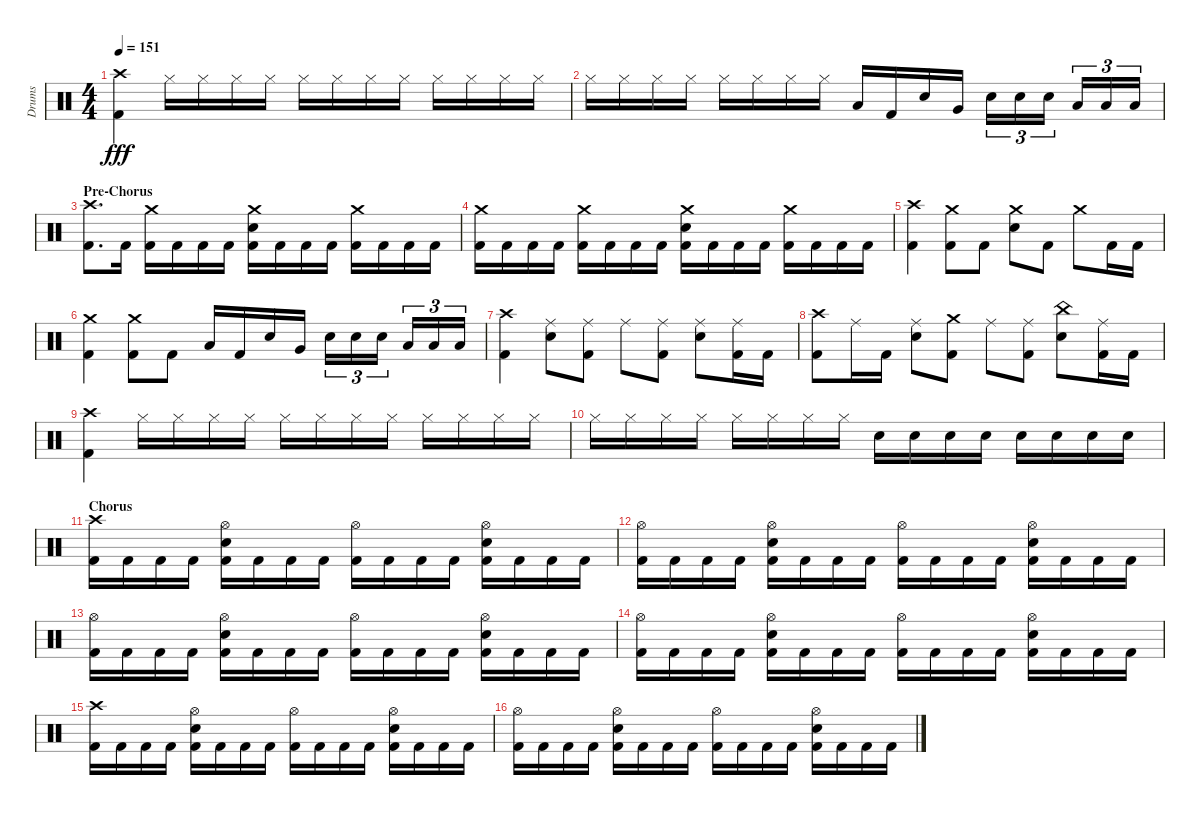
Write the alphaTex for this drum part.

\track ("Drums" "Drums") {instrument percussion}
\staff {score}
\articulation defaults
\ts (4 4)
\tempo 151
\clef neutral
\ks aminor
("Kick (hit) 2" "Crash high (hit)").4{dy fff} "Hi-Hat (closed)".16 "Hi-Hat (closed)".16 "Hi-Hat (closed)".16 "Hi-Hat (closed)".16 "Hi-Hat (closed)".16 "Hi-Hat (closed)".16 "Hi-Hat (closed)".16 "Hi-Hat (closed)".16 "Hi-Hat (closed)".16 "Hi-Hat (closed)".16 "Hi-Hat (closed)".16 "Hi-Hat (closed)".16 |
"Hi-Hat (closed)".16 "Hi-Hat (closed)".16 "Hi-Hat (closed)".16 "Hi-Hat (closed)".16 "Hi-Hat (closed)".16 "Hi-Hat (closed)".16 "Hi-Hat (closed)".16 "Hi-Hat (closed)".16 "Low Tom (hit)".16 "Kick (hit) 2".16 "Snare (hit) 2".16 "Very Low Tom (hit)".16 "Snare (hit) 2".16{tu (3 2)} "Snare (hit) 2".16{tu (3 2)} "Snare (hit) 2".16{tu (3 2)} "Low Floor Tom (hit)".16{tu (3 2)} "Low Floor Tom (hit)".16{tu (3 2)} "Low Floor Tom (hit)".16{tu (3 2)} |
\section ("" "Pre-Chorus")
("Kick (hit) 2" "Crash high (hit)").8{d} "Kick (hit) 2".16 ("Kick (hit) 2" "Crash medium (hit)").16 "Kick (hit) 2".16 "Kick (hit) 2".16 "Kick (hit) 2".16 ("Kick (hit) 2" "Snare (hit) 2" "Crash medium (hit)").16 "Kick (hit) 2".16 "Kick (hit) 2".16 "Kick (hit) 2".16 ("Kick (hit) 2" "Crash medium (hit)").16 "Kick (hit) 2".16 "Kick (hit) 2".16 "Kick (hit) 2".16 |
("Kick (hit) 2" "Crash medium (hit)").16 "Kick (hit) 2".16 "Kick (hit) 2".16 "Kick (hit) 2".16 ("Kick (hit) 2" "Crash medium (hit)").16 "Kick (hit) 2".16 "Kick (hit) 2".16 "Kick (hit) 2".16 ("Kick (hit) 2" "Snare (hit) 2" "Crash medium (hit)").16 "Kick (hit) 2".16 "Kick (hit) 2".16 "Kick (hit) 2".16 ("Kick (hit) 2" "Crash medium (hit)").16 "Kick (hit) 2".16 "Kick (hit) 2".16 "Kick (hit) 2".16 |
("Kick (hit) 2" "Crash high (hit)").4 ("Kick (hit) 2" "Crash medium (hit)").8 "Kick (hit) 2".8 ("Snare (hit) 2" "Crash medium (hit)").8 "Kick (hit) 2".8 "Crash medium (hit)".8 "Kick (hit) 2".16 "Kick (hit) 2".16 |
("Kick (hit) 2" "Crash medium (hit)").4 ("Kick (hit) 2" "Crash medium (hit)").8 "Kick (hit) 2".8 "Low Tom (hit)".16 "Kick (hit) 2".16 "Snare (hit) 2".16 "Very Low Tom (hit)".16 "Snare (hit) 2".16{tu (3 2)} "Snare (hit) 2".16{tu (3 2)} "Snare (hit) 2".16{tu (3 2)} "Low Floor Tom (hit)".16{tu (3 2)} "Low Floor Tom (hit)".16{tu (3 2)} "Low Floor Tom (hit)".16{tu (3 2)} |
("Kick (hit) 2" "Crash high (hit)").4 ("Snare (hit) 2" "Ride (middle)").8 ("Kick (hit) 2" "Ride (middle)").8 "Ride (middle)".8 ("Kick (hit) 2" "Ride (middle)").8 ("Snare (hit) 2" "Ride (middle)").8 ("Kick (hit) 2" "Ride (middle)").16 "Kick (hit) 2".16 |
("Kick (hit) 2" "Crash high (hit)").8 "Ride (middle)".16 "Kick (hit) 2".16 ("Snare (hit) 2" "Ride (middle)").8 ("Kick (hit) 2" "Crash medium (hit)").8 "Ride (middle)".8 ("Kick (hit) 2" "Ride (middle)").8 ("Snare (hit) 2" "China (hit)").8 ("Kick (hit) 2" "Ride (middle)").16 "Kick (hit) 2".16 |
("Kick (hit) 2" "Crash high (hit)").4 "Hi-Hat (closed)".16 "Hi-Hat (closed)".16 "Hi-Hat (closed)".16 "Hi-Hat (closed)".16 "Hi-Hat (closed)".16 "Hi-Hat (closed)".16 "Hi-Hat (closed)".16 "Hi-Hat (closed)".16 "Hi-Hat (closed)".16 "Hi-Hat (closed)".16 "Hi-Hat (closed)".16 "Hi-Hat (closed)".16 |
"Hi-Hat (closed)".16 "Hi-Hat (closed)".16 "Hi-Hat (closed)".16 "Hi-Hat (closed)".16 "Hi-Hat (closed)".16 "Hi-Hat (closed)".16 "Hi-Hat (closed)".16 "Hi-Hat (closed)".16 "Snare (hit) 2".16 "Snare (hit) 2".16 "Snare (hit) 2".16 "Snare (hit) 2".16 "Snare (hit) 2".16 "Snare (hit) 2".16 "Snare (hit) 2".16 "Snare (hit) 2".16 |
\section ("" "Chorus")
("Kick (hit) 2" "Crash high (hit)").16 "Kick (hit) 2".16 "Kick (hit) 2".16 "Kick (hit) 2".16 ("Kick (hit) 2" "Snare (hit) 2" "Hi-Hat (open)").16 "Kick (hit) 2".16 "Kick (hit) 2".16 "Kick (hit) 2".16 ("Kick (hit) 2" "Hi-Hat (open)").16 "Kick (hit) 2".16 "Kick (hit) 2".16 "Kick (hit) 2".16 ("Kick (hit) 2" "Snare (hit) 2" "Hi-Hat (open)").16 "Kick (hit) 2".16 "Kick (hit) 2".16 "Kick (hit) 2".16 |
("Kick (hit) 2" "Hi-Hat (open)").16 "Kick (hit) 2".16 "Kick (hit) 2".16 "Kick (hit) 2".16 ("Kick (hit) 2" "Snare (hit) 2" "Hi-Hat (open)").16 "Kick (hit) 2".16 "Kick (hit) 2".16 "Kick (hit) 2".16 ("Kick (hit) 2" "Hi-Hat (open)").16 "Kick (hit) 2".16 "Kick (hit) 2".16 "Kick (hit) 2".16 ("Kick (hit) 2" "Snare (hit) 2" "Hi-Hat (open)").16 "Kick (hit) 2".16 "Kick (hit) 2".16 "Kick (hit) 2".16 |
("Kick (hit) 2" "Hi-Hat (open)").16 "Kick (hit) 2".16 "Kick (hit) 2".16 "Kick (hit) 2".16 ("Kick (hit) 2" "Snare (hit) 2" "Hi-Hat (open)").16 "Kick (hit) 2".16 "Kick (hit) 2".16 "Kick (hit) 2".16 ("Kick (hit) 2" "Hi-Hat (open)").16 "Kick (hit) 2".16 "Kick (hit) 2".16 "Kick (hit) 2".16 ("Kick (hit) 2" "Snare (hit) 2" "Hi-Hat (open)").16 "Kick (hit) 2".16 "Kick (hit) 2".16 "Kick (hit) 2".16 |
("Kick (hit) 2" "Hi-Hat (open)").16 "Kick (hit) 2".16 "Kick (hit) 2".16 "Kick (hit) 2".16 ("Kick (hit) 2" "Snare (hit) 2" "Hi-Hat (open)").16 "Kick (hit) 2".16 "Kick (hit) 2".16 "Kick (hit) 2".16 ("Kick (hit) 2" "Hi-Hat (open)").16 "Kick (hit) 2".16 "Kick (hit) 2".16 "Kick (hit) 2".16 ("Kick (hit) 2" "Snare (hit) 2" "Hi-Hat (open)").16 "Kick (hit) 2".16 "Kick (hit) 2".16 "Kick (hit) 2".16 |
("Kick (hit) 2" "Crash high (hit)").16 "Kick (hit) 2".16 "Kick (hit) 2".16 "Kick (hit) 2".16 ("Kick (hit) 2" "Snare (hit) 2" "Hi-Hat (open)").16 "Kick (hit) 2".16 "Kick (hit) 2".16 "Kick (hit) 2".16 ("Kick (hit) 2" "Hi-Hat (open)").16 "Kick (hit) 2".16 "Kick (hit) 2".16 "Kick (hit) 2".16 ("Kick (hit) 2" "Snare (hit) 2" "Hi-Hat (open)").16 "Kick (hit) 2".16 "Kick (hit) 2".16 "Kick (hit) 2".16 |
("Kick (hit) 2" "Hi-Hat (open)").16 "Kick (hit) 2".16 "Kick (hit) 2".16 "Kick (hit) 2".16 ("Kick (hit) 2" "Snare (hit) 2" "Hi-Hat (open)").16 "Kick (hit) 2".16 "Kick (hit) 2".16 "Kick (hit) 2".16 ("Kick (hit) 2" "Hi-Hat (open)").16 "Kick (hit) 2".16 "Kick (hit) 2".16 "Kick (hit) 2".16 ("Kick (hit) 2" "Snare (hit) 2" "Hi-Hat (open)").16 "Kick (hit) 2".16 "Kick (hit) 2".16 "Kick (hit) 2".16
